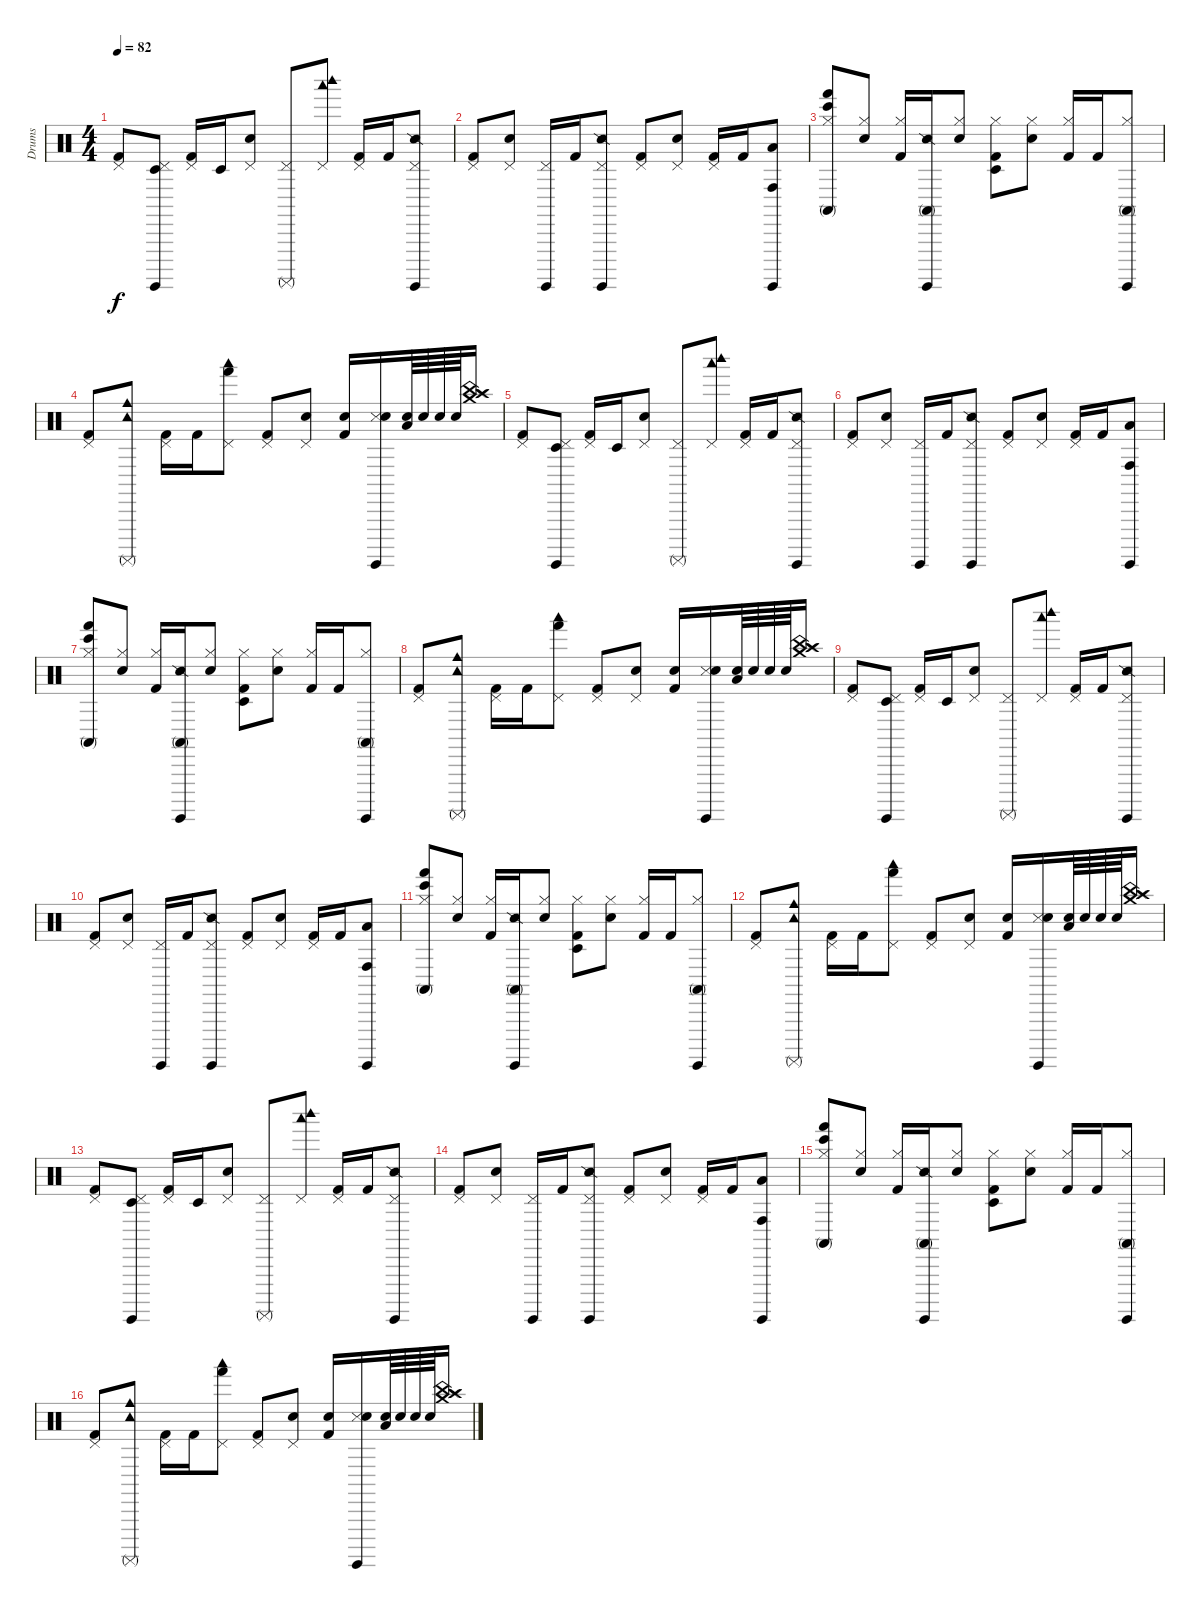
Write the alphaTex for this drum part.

\track ("Drums" "Drums") {instrument percussion}
\staff {score}
\articulation defaults
\ts (4 4)
\tempo 82
\clef neutral
\ks c
("Kick (hit) 2" "Pedal Hi-Hat (hit)").8{dy f} ("Timbale low (hit)" "Surdo (hit)" "Pedal Hi-Hat (hit)").8 ("Kick (hit) 2" "Pedal Hi-Hat (hit)").16 "Timbale low (hit)".16 ("Snare (hit) 2" "Pedal Hi-Hat (hit)").8 ("Surdo (mute)" "Pedal Hi-Hat (hit)").8 ("Woodblock low (hit)" "Woodblock high (hit)" "Pedal Hi-Hat (hit)").8 ("Kick (hit) 2" "Pedal Hi-Hat (hit)").16 "Kick (hit) 2".16 ("Snare (side stick) 2" "Surdo (hit)" "Pedal Hi-Hat (hit)").8 |
("Kick (hit) 2" "Pedal Hi-Hat (hit)").8 ("Snare (hit) 2" "Pedal Hi-Hat (hit)").8 ("Surdo (hit)" "Pedal Hi-Hat (hit)").16 "Kick (hit) 2".16 ("Snare (side stick) 2" "Surdo (hit)" "Pedal Hi-Hat (hit)").8 ("Kick (hit) 2" "Pedal Hi-Hat (hit)").8 ("Snare (hit) 2" "Pedal Hi-Hat (hit)").8 ("Kick (hit) 2" "Pedal Hi-Hat (hit)").16 "Kick (hit) 2".16 ("Low Floor Tom (hit)" "Surdo (hit)" "Conga high (hit)").8 |
("Conga high (mute)" "Hand (hit)" "Bongo High (hit)" "Hi-Hat (closed)").8 ("Snare (hit) 2" "Hi-Hat (closed)").8 ("Kick (hit) 2" "Hi-Hat (closed)").16 ("Conga high (mute)" "Snare (side stick) 2" "Surdo (hit)").16 ("Snare (hit) 2" "Hi-Hat (closed)").8 ("Timbale low (hit)" "Kick (hit) 2" "Hi-Hat (closed)").8 ("Snare (hit) 2" "Hi-Hat (closed)").8 ("Kick (hit) 2" "Hi-Hat (closed)").16 "Kick (hit) 2".16 ("Surdo (hit)" "Conga high (mute)" "Hi-Hat (closed)").8 |
("Kick (hit) 2" "Pedal Hi-Hat (hit)").8 ("Surdo (mute)" "Cowbell medium (hit)" "Tambourine (hit)").8 ("Kick (hit) 2" "Pedal Hi-Hat (hit)").16 "Kick (hit) 2".16 ("Hand (hit)" "Woodblock low (hit)" "Pedal Hi-Hat (hit)").8 ("Kick (hit) 2" "Pedal Hi-Hat (hit)").8 ("Snare (hit) 2" "Pedal Hi-Hat (hit)").8 ("Kick (hit) 2" "Electric Snare (hit)").16 ("Metronome (hit)" "Surdo (hit)" "Electric Snare (hit)").16 ("Snare (hit) 2" "Low Floor Tom (hit)").64 "Snare (hit) 2".64 "Snare (hit) 2".64 "Snare (hit) 2".64 ("China (hit)" "Crash high (hit)" "Splash (hit)" "Crash medium (hit)").16 |
("Kick (hit) 2" "Pedal Hi-Hat (hit)").8 ("Timbale low (hit)" "Surdo (hit)" "Pedal Hi-Hat (hit)").8 ("Kick (hit) 2" "Pedal Hi-Hat (hit)").16 "Timbale low (hit)".16 ("Snare (hit) 2" "Pedal Hi-Hat (hit)").8 ("Surdo (mute)" "Pedal Hi-Hat (hit)").8 ("Woodblock low (hit)" "Woodblock high (hit)" "Pedal Hi-Hat (hit)").8 ("Kick (hit) 2" "Pedal Hi-Hat (hit)").16 "Kick (hit) 2".16 ("Snare (side stick) 2" "Surdo (hit)" "Pedal Hi-Hat (hit)").8 |
("Kick (hit) 2" "Pedal Hi-Hat (hit)").8 ("Snare (hit) 2" "Pedal Hi-Hat (hit)").8 ("Surdo (hit)" "Pedal Hi-Hat (hit)").16 "Kick (hit) 2".16 ("Snare (side stick) 2" "Surdo (hit)" "Pedal Hi-Hat (hit)").8 ("Kick (hit) 2" "Pedal Hi-Hat (hit)").8 ("Snare (hit) 2" "Pedal Hi-Hat (hit)").8 ("Kick (hit) 2" "Pedal Hi-Hat (hit)").16 "Kick (hit) 2".16 ("Low Floor Tom (hit)" "Surdo (hit)" "Conga high (hit)").8 |
("Conga high (mute)" "Hand (hit)" "Bongo High (hit)" "Hi-Hat (closed)").8 ("Snare (hit) 2" "Hi-Hat (closed)").8 ("Kick (hit) 2" "Hi-Hat (closed)").16 ("Conga high (mute)" "Snare (side stick) 2" "Surdo (hit)").16 ("Snare (hit) 2" "Hi-Hat (closed)").8 ("Timbale low (hit)" "Kick (hit) 2" "Hi-Hat (closed)").8 ("Snare (hit) 2" "Hi-Hat (closed)").8 ("Kick (hit) 2" "Hi-Hat (closed)").16 "Kick (hit) 2".16 ("Surdo (hit)" "Conga high (mute)" "Hi-Hat (closed)").8 |
("Kick (hit) 2" "Pedal Hi-Hat (hit)").8 ("Surdo (mute)" "Cowbell medium (hit)" "Tambourine (hit)").8 ("Kick (hit) 2" "Pedal Hi-Hat (hit)").16 "Kick (hit) 2".16 ("Hand (hit)" "Woodblock low (hit)" "Pedal Hi-Hat (hit)").8 ("Kick (hit) 2" "Pedal Hi-Hat (hit)").8 ("Snare (hit) 2" "Pedal Hi-Hat (hit)").8 ("Kick (hit) 2" "Electric Snare (hit)").16 ("Metronome (hit)" "Surdo (hit)" "Electric Snare (hit)").16 ("Snare (hit) 2" "Low Floor Tom (hit)").64 "Snare (hit) 2".64 "Snare (hit) 2".64 "Snare (hit) 2".64 ("China (hit)" "Crash high (hit)" "Splash (hit)" "Crash medium (hit)").16 |
("Kick (hit) 2" "Pedal Hi-Hat (hit)").8 ("Timbale low (hit)" "Surdo (hit)" "Pedal Hi-Hat (hit)").8 ("Kick (hit) 2" "Pedal Hi-Hat (hit)").16 "Timbale low (hit)".16 ("Snare (hit) 2" "Pedal Hi-Hat (hit)").8 ("Surdo (mute)" "Pedal Hi-Hat (hit)").8 ("Woodblock low (hit)" "Woodblock high (hit)" "Pedal Hi-Hat (hit)").8 ("Kick (hit) 2" "Pedal Hi-Hat (hit)").16 "Kick (hit) 2".16 ("Snare (side stick) 2" "Surdo (hit)" "Pedal Hi-Hat (hit)").8 |
("Kick (hit) 2" "Pedal Hi-Hat (hit)").8 ("Snare (hit) 2" "Pedal Hi-Hat (hit)").8 ("Surdo (hit)" "Pedal Hi-Hat (hit)").16 "Kick (hit) 2".16 ("Snare (side stick) 2" "Surdo (hit)" "Pedal Hi-Hat (hit)").8 ("Kick (hit) 2" "Pedal Hi-Hat (hit)").8 ("Snare (hit) 2" "Pedal Hi-Hat (hit)").8 ("Kick (hit) 2" "Pedal Hi-Hat (hit)").16 "Kick (hit) 2".16 ("Low Floor Tom (hit)" "Surdo (hit)" "Conga high (hit)").8 |
("Conga high (mute)" "Hand (hit)" "Bongo High (hit)" "Hi-Hat (closed)").8 ("Snare (hit) 2" "Hi-Hat (closed)").8 ("Kick (hit) 2" "Hi-Hat (closed)").16 ("Conga high (mute)" "Snare (side stick) 2" "Surdo (hit)").16 ("Snare (hit) 2" "Hi-Hat (closed)").8 ("Timbale low (hit)" "Kick (hit) 2" "Hi-Hat (closed)").8 ("Snare (hit) 2" "Hi-Hat (closed)").8 ("Kick (hit) 2" "Hi-Hat (closed)").16 "Kick (hit) 2".16 ("Surdo (hit)" "Conga high (mute)" "Hi-Hat (closed)").8 |
("Kick (hit) 2" "Pedal Hi-Hat (hit)").8 ("Surdo (mute)" "Cowbell medium (hit)" "Tambourine (hit)").8 ("Kick (hit) 2" "Pedal Hi-Hat (hit)").16 "Kick (hit) 2".16 ("Hand (hit)" "Woodblock low (hit)" "Pedal Hi-Hat (hit)").8 ("Kick (hit) 2" "Pedal Hi-Hat (hit)").8 ("Snare (hit) 2" "Pedal Hi-Hat (hit)").8 ("Kick (hit) 2" "Electric Snare (hit)").16 ("Metronome (hit)" "Surdo (hit)" "Electric Snare (hit)").16 ("Snare (hit) 2" "Low Floor Tom (hit)").64 "Snare (hit) 2".64 "Snare (hit) 2".64 "Snare (hit) 2".64 ("China (hit)" "Crash high (hit)" "Splash (hit)" "Crash medium (hit)").16 |
("Kick (hit) 2" "Pedal Hi-Hat (hit)").8 ("Timbale low (hit)" "Surdo (hit)" "Pedal Hi-Hat (hit)").8 ("Kick (hit) 2" "Pedal Hi-Hat (hit)").16 "Timbale low (hit)".16 ("Snare (hit) 2" "Pedal Hi-Hat (hit)").8 ("Surdo (mute)" "Pedal Hi-Hat (hit)").8 ("Woodblock low (hit)" "Woodblock high (hit)" "Pedal Hi-Hat (hit)").8 ("Kick (hit) 2" "Pedal Hi-Hat (hit)").16 "Kick (hit) 2".16 ("Snare (side stick) 2" "Surdo (hit)" "Pedal Hi-Hat (hit)").8 |
("Kick (hit) 2" "Pedal Hi-Hat (hit)").8 ("Snare (hit) 2" "Pedal Hi-Hat (hit)").8 ("Surdo (hit)" "Pedal Hi-Hat (hit)").16 "Kick (hit) 2".16 ("Snare (side stick) 2" "Surdo (hit)" "Pedal Hi-Hat (hit)").8 ("Kick (hit) 2" "Pedal Hi-Hat (hit)").8 ("Snare (hit) 2" "Pedal Hi-Hat (hit)").8 ("Kick (hit) 2" "Pedal Hi-Hat (hit)").16 "Kick (hit) 2".16 ("Low Floor Tom (hit)" "Surdo (hit)" "Conga high (hit)").8 |
("Conga high (mute)" "Hand (hit)" "Bongo High (hit)" "Hi-Hat (closed)").8 ("Snare (hit) 2" "Hi-Hat (closed)").8 ("Kick (hit) 2" "Hi-Hat (closed)").16 ("Conga high (mute)" "Snare (side stick) 2" "Surdo (hit)").16 ("Snare (hit) 2" "Hi-Hat (closed)").8 ("Timbale low (hit)" "Kick (hit) 2" "Hi-Hat (closed)").8 ("Snare (hit) 2" "Hi-Hat (closed)").8 ("Kick (hit) 2" "Hi-Hat (closed)").16 "Kick (hit) 2".16 ("Surdo (hit)" "Conga high (mute)" "Hi-Hat (closed)").8 |
("Kick (hit) 2" "Pedal Hi-Hat (hit)").8 ("Surdo (mute)" "Cowbell medium (hit)" "Tambourine (hit)").8 ("Kick (hit) 2" "Pedal Hi-Hat (hit)").16 "Kick (hit) 2".16 ("Hand (hit)" "Woodblock low (hit)" "Pedal Hi-Hat (hit)").8 ("Kick (hit) 2" "Pedal Hi-Hat (hit)").8 ("Snare (hit) 2" "Pedal Hi-Hat (hit)").8 ("Kick (hit) 2" "Electric Snare (hit)").16 ("Metronome (hit)" "Surdo (hit)" "Electric Snare (hit)").16 ("Snare (hit) 2" "Low Floor Tom (hit)").64 "Snare (hit) 2".64 "Snare (hit) 2".64 "Snare (hit) 2".64 ("China (hit)" "Crash high (hit)" "Splash (hit)" "Crash medium (hit)").16
